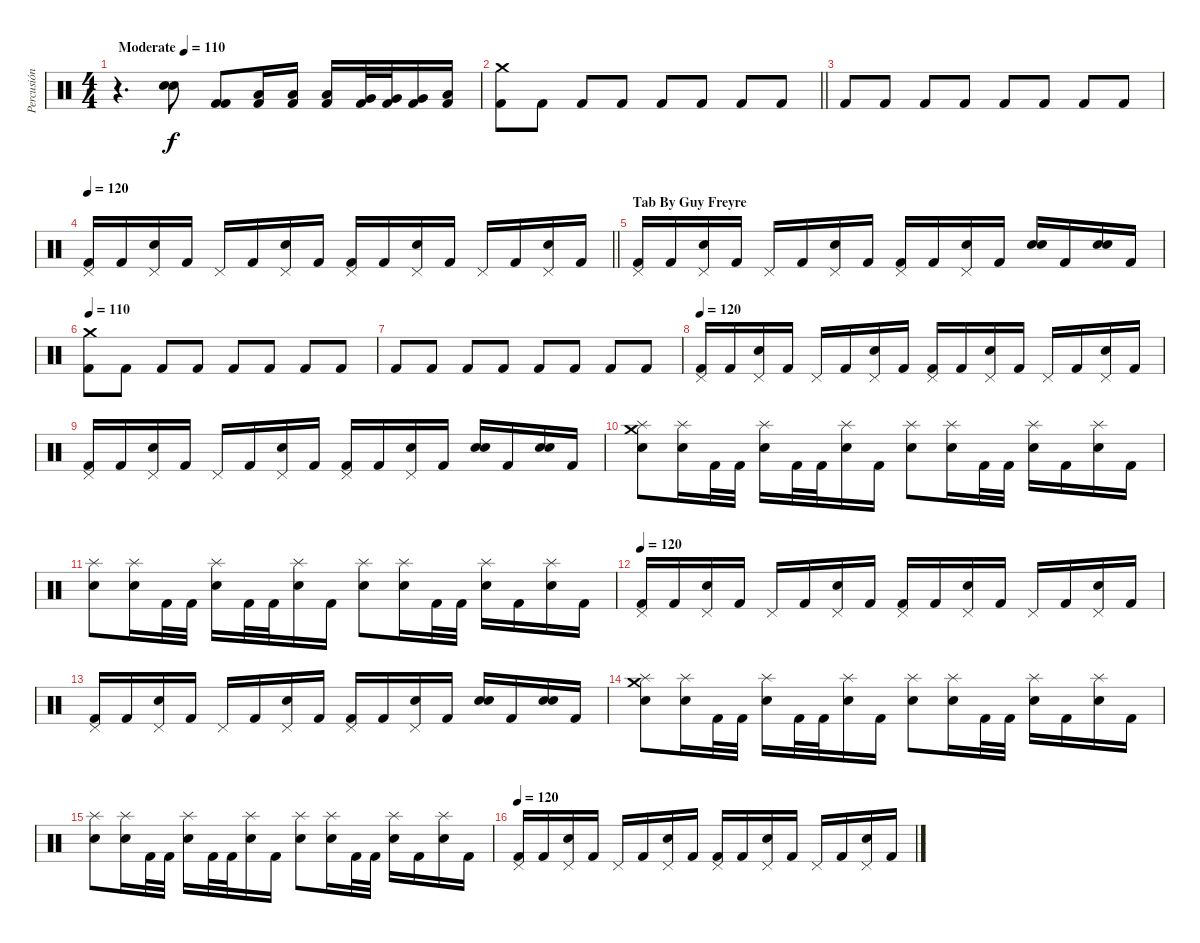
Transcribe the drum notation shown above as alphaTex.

\track ("Percusión" "Percusión") {instrument percussion}
\staff {score}
\articulation defaults
\ts (4 4)
\tempo (110 "Moderate")
\clef neutral
\ks c
r.4{d dy f} ("Electric Snare (hit)" "Electric Snare (hit)").8 ("Kick (hit) 2" "Kick (hit) 2").8 ("Kick (hit) 2" "Low Tom (hit)").16 ("Kick (hit) 2" "Low Tom (hit)").16 ("Kick (hit) 2" "Low Tom (hit)").16 ("Kick (hit) 2" "Very Low Tom (hit)").32 ("Kick (hit) 2" "Very Low Tom (hit)").32 ("Kick (hit) 2" "Very Low Tom (hit)").16 ("Kick (hit) 2" "Low Floor Tom (hit)").16 |
\barLineRight lightlight
("Crash medium (hit)" "Kick (hit) 2").8 "Kick (hit) 2".8 "Kick (hit) 2".8 "Kick (hit) 2".8 "Kick (hit) 2".8 "Kick (hit) 2".8 "Kick (hit) 2".8 "Kick (hit) 2".8 |
\section ("" "")
"Kick (hit) 2".8 "Kick (hit) 2".8 "Kick (hit) 2".8 "Kick (hit) 2".8 "Kick (hit) 2".8 "Kick (hit) 2".8 "Kick (hit) 2".8 "Kick (hit) 2".8 |
\tempo 120
\barLineRight lightlight
("Pedal Hi-Hat (hit)" "Kick (hit) 2").16 "Kick (hit) 2".16 ("Pedal Hi-Hat (hit)" "Electric Snare (hit)").16 "Kick (hit) 2".16 "Pedal Hi-Hat (hit)".16 "Kick (hit) 2".16 ("Pedal Hi-Hat (hit)" "Electric Snare (hit)").16 "Kick (hit) 2".16 ("Pedal Hi-Hat (hit)" "Kick (hit) 2").16 "Kick (hit) 2".16 ("Pedal Hi-Hat (hit)" "Electric Snare (hit)").16 "Kick (hit) 2".16 "Pedal Hi-Hat (hit)".16 "Kick (hit) 2".16 ("Pedal Hi-Hat (hit)" "Electric Snare (hit)").16 "Kick (hit) 2".16 |
\section ("" "Tab By Guy Freyre")
("Pedal Hi-Hat (hit)" "Kick (hit) 2").16 "Kick (hit) 2".16 ("Pedal Hi-Hat (hit)" "Electric Snare (hit)").16 "Kick (hit) 2".16 "Pedal Hi-Hat (hit)".16 "Kick (hit) 2".16 ("Pedal Hi-Hat (hit)" "Electric Snare (hit)").16 "Kick (hit) 2".16 ("Pedal Hi-Hat (hit)" "Kick (hit) 2").16 "Kick (hit) 2".16 ("Pedal Hi-Hat (hit)" "Electric Snare (hit)").16 "Kick (hit) 2".16 ("Electric Snare (hit)" "Electric Snare (hit)").16{bu 60} "Kick (hit) 2".16 ("Electric Snare (hit)" "Electric Snare (hit)").16{bu 60} "Kick (hit) 2".16 |
\tempo 110
("Crash medium (hit)" "Kick (hit) 2").8 "Kick (hit) 2".8 "Kick (hit) 2".8 "Kick (hit) 2".8 "Kick (hit) 2".8 "Kick (hit) 2".8 "Kick (hit) 2".8 "Kick (hit) 2".8 |
"Kick (hit) 2".8 "Kick (hit) 2".8 "Kick (hit) 2".8 "Kick (hit) 2".8 "Kick (hit) 2".8 "Kick (hit) 2".8 "Kick (hit) 2".8 "Kick (hit) 2".8 |
\tempo 120
("Pedal Hi-Hat (hit)" "Kick (hit) 2").16 "Kick (hit) 2".16 ("Pedal Hi-Hat (hit)" "Electric Snare (hit)").16 "Kick (hit) 2".16 "Pedal Hi-Hat (hit)".16 "Kick (hit) 2".16 ("Pedal Hi-Hat (hit)" "Electric Snare (hit)").16 "Kick (hit) 2".16 ("Pedal Hi-Hat (hit)" "Kick (hit) 2").16 "Kick (hit) 2".16 ("Pedal Hi-Hat (hit)" "Electric Snare (hit)").16 "Kick (hit) 2".16 "Pedal Hi-Hat (hit)".16 "Kick (hit) 2".16 ("Pedal Hi-Hat (hit)" "Electric Snare (hit)").16 "Kick (hit) 2".16 |
("Pedal Hi-Hat (hit)" "Kick (hit) 2").16 "Kick (hit) 2".16 ("Pedal Hi-Hat (hit)" "Electric Snare (hit)").16 "Kick (hit) 2".16 "Pedal Hi-Hat (hit)".16 "Kick (hit) 2".16 ("Pedal Hi-Hat (hit)" "Electric Snare (hit)").16 "Kick (hit) 2".16 ("Pedal Hi-Hat (hit)" "Kick (hit) 2").16 "Kick (hit) 2".16 ("Pedal Hi-Hat (hit)" "Electric Snare (hit)").16 "Kick (hit) 2".16 ("Electric Snare (hit)" "Electric Snare (hit)").16{bu 60} "Kick (hit) 2".16 ("Electric Snare (hit)" "Electric Snare (hit)").16{bu 60} "Kick (hit) 2".16 |
("Crash medium (hit)" "Splash (hit)" "Electric Snare (hit)").8 ("Splash (hit)" "Electric Snare (hit)").16 "Kick (hit) 2".32 "Kick (hit) 2".32 ("Splash (hit)" "Electric Snare (hit)").16 "Kick (hit) 2".32 "Kick (hit) 2".32 ("Splash (hit)" "Electric Snare (hit)").16 "Kick (hit) 2".16 ("Splash (hit)" "Electric Snare (hit)").8 ("Splash (hit)" "Electric Snare (hit)").16 "Kick (hit) 2".32 "Kick (hit) 2".32 ("Splash (hit)" "Electric Snare (hit)").16 "Kick (hit) 2".16 ("Splash (hit)" "Electric Snare (hit)").16 "Kick (hit) 2".16 |
("Splash (hit)" "Electric Snare (hit)").8 ("Splash (hit)" "Electric Snare (hit)").16 "Kick (hit) 2".32 "Kick (hit) 2".32 ("Splash (hit)" "Electric Snare (hit)").16 "Kick (hit) 2".32 "Kick (hit) 2".32 ("Splash (hit)" "Electric Snare (hit)").16 "Kick (hit) 2".16 ("Splash (hit)" "Electric Snare (hit)").8 ("Splash (hit)" "Electric Snare (hit)").16 "Kick (hit) 2".32 "Kick (hit) 2".32 ("Splash (hit)" "Electric Snare (hit)").16 "Kick (hit) 2".16 ("Splash (hit)" "Electric Snare (hit)").16 "Kick (hit) 2".16 |
\tempo 120
("Pedal Hi-Hat (hit)" "Kick (hit) 2").16 "Kick (hit) 2".16 ("Pedal Hi-Hat (hit)" "Electric Snare (hit)").16 "Kick (hit) 2".16 "Pedal Hi-Hat (hit)".16 "Kick (hit) 2".16 ("Pedal Hi-Hat (hit)" "Electric Snare (hit)").16 "Kick (hit) 2".16 ("Pedal Hi-Hat (hit)" "Kick (hit) 2").16 "Kick (hit) 2".16 ("Pedal Hi-Hat (hit)" "Electric Snare (hit)").16 "Kick (hit) 2".16 "Pedal Hi-Hat (hit)".16 "Kick (hit) 2".16 ("Pedal Hi-Hat (hit)" "Electric Snare (hit)").16 "Kick (hit) 2".16 |
("Pedal Hi-Hat (hit)" "Kick (hit) 2").16 "Kick (hit) 2".16 ("Pedal Hi-Hat (hit)" "Electric Snare (hit)").16 "Kick (hit) 2".16 "Pedal Hi-Hat (hit)".16 "Kick (hit) 2".16 ("Pedal Hi-Hat (hit)" "Electric Snare (hit)").16 "Kick (hit) 2".16 ("Pedal Hi-Hat (hit)" "Kick (hit) 2").16 "Kick (hit) 2".16 ("Pedal Hi-Hat (hit)" "Electric Snare (hit)").16 "Kick (hit) 2".16 ("Electric Snare (hit)" "Electric Snare (hit)").16{bu 60} "Kick (hit) 2".16 ("Electric Snare (hit)" "Electric Snare (hit)").16{bu 60} "Kick (hit) 2".16 |
("Crash medium (hit)" "Splash (hit)" "Electric Snare (hit)").8 ("Splash (hit)" "Electric Snare (hit)").16 "Kick (hit) 2".32 "Kick (hit) 2".32 ("Splash (hit)" "Electric Snare (hit)").16 "Kick (hit) 2".32 "Kick (hit) 2".32 ("Splash (hit)" "Electric Snare (hit)").16 "Kick (hit) 2".16 ("Splash (hit)" "Electric Snare (hit)").8 ("Splash (hit)" "Electric Snare (hit)").16 "Kick (hit) 2".32 "Kick (hit) 2".32 ("Splash (hit)" "Electric Snare (hit)").16 "Kick (hit) 2".16 ("Splash (hit)" "Electric Snare (hit)").16 "Kick (hit) 2".16 |
("Splash (hit)" "Electric Snare (hit)").8 ("Splash (hit)" "Electric Snare (hit)").16 "Kick (hit) 2".32 "Kick (hit) 2".32 ("Splash (hit)" "Electric Snare (hit)").16 "Kick (hit) 2".32 "Kick (hit) 2".32 ("Splash (hit)" "Electric Snare (hit)").16 "Kick (hit) 2".16 ("Splash (hit)" "Electric Snare (hit)").8 ("Splash (hit)" "Electric Snare (hit)").16 "Kick (hit) 2".32 "Kick (hit) 2".32 ("Splash (hit)" "Electric Snare (hit)").16 "Kick (hit) 2".16 ("Splash (hit)" "Electric Snare (hit)").16 "Kick (hit) 2".16 |
\tempo 120
("Pedal Hi-Hat (hit)" "Kick (hit) 2").16 "Kick (hit) 2".16 ("Pedal Hi-Hat (hit)" "Electric Snare (hit)").16 "Kick (hit) 2".16 "Pedal Hi-Hat (hit)".16 "Kick (hit) 2".16 ("Pedal Hi-Hat (hit)" "Electric Snare (hit)").16 "Kick (hit) 2".16 ("Pedal Hi-Hat (hit)" "Kick (hit) 2").16 "Kick (hit) 2".16 ("Pedal Hi-Hat (hit)" "Electric Snare (hit)").16 "Kick (hit) 2".16 "Pedal Hi-Hat (hit)".16 "Kick (hit) 2".16 ("Pedal Hi-Hat (hit)" "Electric Snare (hit)").16 "Kick (hit) 2".16
